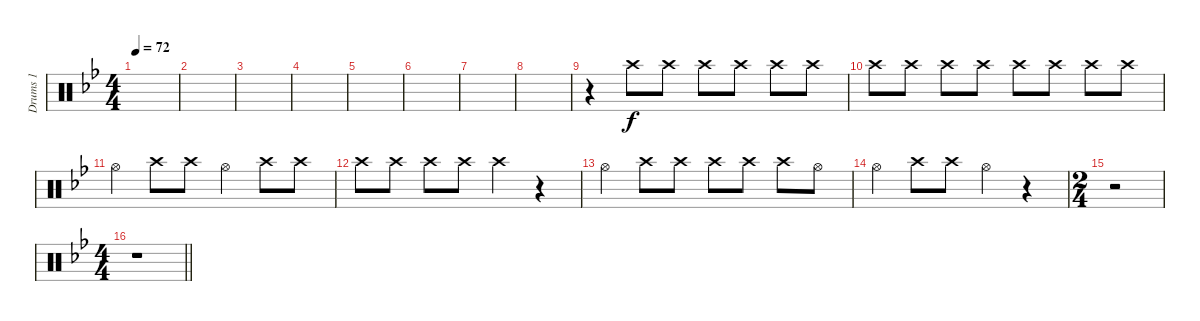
\track ("Drums 1" "Drums 1") {instrument percussion}
\staff {score}
\articulation defaults
\ts (4 4)
\tempo 72
\clef neutral
\ks bb
|
|
|
|
|
|
|
|
r.4 "Crash high (hit)".8 "Crash high (hit)".8 "Crash high (hit)".8 "Crash high (hit)".8 "Crash high (hit)".8 "Crash high (hit)".8 |
"Crash high (hit)".8 "Crash high (hit)".8 "Crash high (hit)".8 "Crash high (hit)".8 "Crash high (hit)".8 "Crash high (hit)".8 "Crash high (hit)".8 "Crash high (hit)".8 |
"Hi-Hat (open)".4 "Crash high (hit)".8 "Crash high (hit)".8 "Hi-Hat (open)".4 "Crash high (hit)".8 "Crash high (hit)".8 |
"Crash high (hit)".8 "Crash high (hit)".8 "Crash high (hit)".8 "Crash high (hit)".8 "Crash high (hit)".4 r.4 |
"Hi-Hat (open)".4 "Crash high (hit)".8 "Crash high (hit)".8 "Crash high (hit)".8 "Crash high (hit)".8 "Crash high (hit)".8 "Hi-Hat (open)".8 |
"Hi-Hat (open)".4 "Crash high (hit)".8 "Crash high (hit)".8 "Hi-Hat (open)".4 r.4 |
\ts (2 4)
r.2 |
\ts (4 4)
\barLineRight lightlight
r.1
